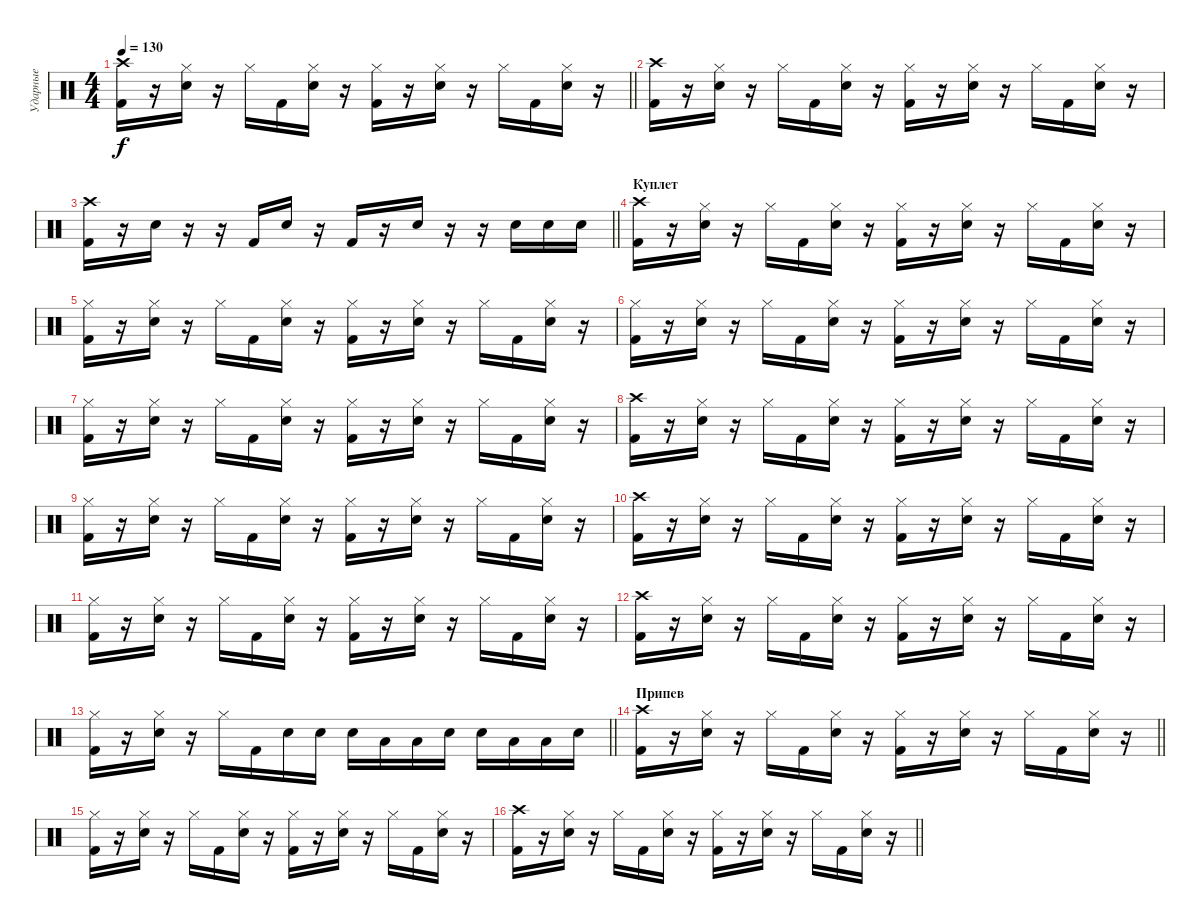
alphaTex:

\track ("Ударные" "Ударные") {instrument percussion}
\staff {score}
\articulation defaults
\ts (4 4)
\tempo 130
\clef neutral
\barLineRight lightlight
\ks c
("Kick (hit) 2" "Crash high (hit)").16{dy f} r.16 ("Electric Snare (hit)" "Hi-Hat (closed)").16 r.16 "Hi-Hat (closed)".16 "Kick (hit) 2".16 ("Electric Snare (hit)" "Hi-Hat (closed)").16 r.16 ("Kick (hit) 2" "Hi-Hat (closed)").16 r.16 ("Electric Snare (hit)" "Hi-Hat (closed)").16 r.16 "Hi-Hat (closed)".16 "Kick (hit) 2".16 ("Electric Snare (hit)" "Hi-Hat (closed)").16 r.16 |
("Kick (hit) 2" "Crash high (hit)").16 r.16 ("Electric Snare (hit)" "Hi-Hat (closed)").16 r.16 "Hi-Hat (closed)".16 "Kick (hit) 2".16 ("Electric Snare (hit)" "Hi-Hat (closed)").16 r.16 ("Kick (hit) 2" "Hi-Hat (closed)").16 r.16 ("Electric Snare (hit)" "Hi-Hat (closed)").16 r.16 "Hi-Hat (closed)".16 "Kick (hit) 2".16 ("Electric Snare (hit)" "Hi-Hat (closed)").16 r.16 |
\barLineRight lightlight
("Kick (hit) 2" "Crash high (hit)").16 r.16 "Electric Snare (hit)".16 r.16 r.16 "Kick (hit) 2".16 "Electric Snare (hit)".16 r.16 "Kick (hit) 2".16 r.16 "Electric Snare (hit)".16 r.16 r.16 "Electric Snare (hit)".16 "Electric Snare (hit)".16 "Electric Snare (hit)".16 |
\section ("" "Куплет")
("Kick (hit) 2" "Crash high (hit)").16 r.16 ("Electric Snare (hit)" "Hi-Hat (closed)").16 r.16 "Hi-Hat (closed)".16 "Kick (hit) 2".16 ("Electric Snare (hit)" "Hi-Hat (closed)").16 r.16 ("Kick (hit) 2" "Hi-Hat (closed)").16 r.16 ("Electric Snare (hit)" "Hi-Hat (closed)").16 r.16 "Hi-Hat (closed)".16 "Kick (hit) 2".16 ("Electric Snare (hit)" "Hi-Hat (closed)").16 r.16 |
("Kick (hit) 2" "Hi-Hat (closed)").16 r.16 ("Electric Snare (hit)" "Hi-Hat (closed)").16 r.16 "Hi-Hat (closed)".16 "Kick (hit) 2".16 ("Electric Snare (hit)" "Hi-Hat (closed)").16 r.16 ("Kick (hit) 2" "Hi-Hat (closed)").16 r.16 ("Electric Snare (hit)" "Hi-Hat (closed)").16 r.16 "Hi-Hat (closed)".16 "Kick (hit) 2".16 ("Electric Snare (hit)" "Hi-Hat (closed)").16 r.16 |
("Kick (hit) 2" "Hi-Hat (closed)").16 r.16 ("Electric Snare (hit)" "Hi-Hat (closed)").16 r.16 "Hi-Hat (closed)".16 "Kick (hit) 2".16 ("Electric Snare (hit)" "Hi-Hat (closed)").16 r.16 ("Kick (hit) 2" "Hi-Hat (closed)").16 r.16 ("Electric Snare (hit)" "Hi-Hat (closed)").16 r.16 "Hi-Hat (closed)".16 "Kick (hit) 2".16 ("Electric Snare (hit)" "Hi-Hat (closed)").16 r.16 |
("Kick (hit) 2" "Hi-Hat (closed)").16 r.16 ("Electric Snare (hit)" "Hi-Hat (closed)").16 r.16 "Hi-Hat (closed)".16 "Kick (hit) 2".16 ("Electric Snare (hit)" "Hi-Hat (closed)").16 r.16 ("Kick (hit) 2" "Hi-Hat (closed)").16 r.16 ("Electric Snare (hit)" "Hi-Hat (closed)").16 r.16 "Hi-Hat (closed)".16 "Kick (hit) 2".16 ("Electric Snare (hit)" "Hi-Hat (closed)").16 r.16 |
("Kick (hit) 2" "Crash high (hit)").16 r.16 ("Electric Snare (hit)" "Hi-Hat (closed)").16 r.16 "Hi-Hat (closed)".16 "Kick (hit) 2".16 ("Electric Snare (hit)" "Hi-Hat (closed)").16 r.16 ("Kick (hit) 2" "Hi-Hat (closed)").16 r.16 ("Electric Snare (hit)" "Hi-Hat (closed)").16 r.16 "Hi-Hat (closed)".16 "Kick (hit) 2".16 ("Electric Snare (hit)" "Hi-Hat (closed)").16 r.16 |
("Kick (hit) 2" "Hi-Hat (closed)").16 r.16 ("Electric Snare (hit)" "Hi-Hat (closed)").16 r.16 "Hi-Hat (closed)".16 "Kick (hit) 2".16 ("Electric Snare (hit)" "Hi-Hat (closed)").16 r.16 ("Kick (hit) 2" "Hi-Hat (closed)").16 r.16 ("Electric Snare (hit)" "Hi-Hat (closed)").16 r.16 "Hi-Hat (closed)".16 "Kick (hit) 2".16 ("Electric Snare (hit)" "Hi-Hat (closed)").16 r.16 |
("Kick (hit) 2" "Crash high (hit)").16 r.16 ("Electric Snare (hit)" "Hi-Hat (closed)").16 r.16 "Hi-Hat (closed)".16 "Kick (hit) 2".16 ("Electric Snare (hit)" "Hi-Hat (closed)").16 r.16 ("Kick (hit) 2" "Hi-Hat (closed)").16 r.16 ("Electric Snare (hit)" "Hi-Hat (closed)").16 r.16 "Hi-Hat (closed)".16 "Kick (hit) 2".16 ("Electric Snare (hit)" "Hi-Hat (closed)").16 r.16 |
("Kick (hit) 2" "Hi-Hat (closed)").16 r.16 ("Electric Snare (hit)" "Hi-Hat (closed)").16 r.16 "Hi-Hat (closed)".16 "Kick (hit) 2".16 ("Electric Snare (hit)" "Hi-Hat (closed)").16 r.16 ("Kick (hit) 2" "Hi-Hat (closed)").16 r.16 ("Electric Snare (hit)" "Hi-Hat (closed)").16 r.16 "Hi-Hat (closed)".16 "Kick (hit) 2".16 ("Electric Snare (hit)" "Hi-Hat (closed)").16 r.16 |
("Kick (hit) 2" "Crash high (hit)").16 r.16 ("Electric Snare (hit)" "Hi-Hat (closed)").16 r.16 "Hi-Hat (closed)".16 "Kick (hit) 2".16 ("Electric Snare (hit)" "Hi-Hat (closed)").16 r.16 ("Kick (hit) 2" "Hi-Hat (closed)").16 r.16 ("Electric Snare (hit)" "Hi-Hat (closed)").16 r.16 "Hi-Hat (closed)".16 "Kick (hit) 2".16 ("Electric Snare (hit)" "Hi-Hat (closed)").16 r.16 |
\barLineRight lightlight
("Kick (hit) 2" "Hi-Hat (closed)").16 r.16 ("Electric Snare (hit)" "Hi-Hat (closed)").16 r.16 "Hi-Hat (closed)".16 "Kick (hit) 2".16 "Electric Snare (hit)".16 "Electric Snare (hit)".16 "Electric Snare (hit)".16 "Low Tom (hit)".16 "Low Tom (hit)".16 "Electric Snare (hit)".16 "Electric Snare (hit)".16 "Low Tom (hit)".16 "Low Tom (hit)".16 "Electric Snare (hit)".16 |
\section ("" "Припев")
\barLineRight lightlight
("Kick (hit) 2" "Crash high (hit)").16 r.16 ("Electric Snare (hit)" "Hi-Hat (closed)").16 r.16 "Hi-Hat (closed)".16 "Kick (hit) 2".16 ("Electric Snare (hit)" "Hi-Hat (closed)").16 r.16 ("Kick (hit) 2" "Hi-Hat (closed)").16 r.16 ("Electric Snare (hit)" "Hi-Hat (closed)").16 r.16 "Hi-Hat (closed)".16 "Kick (hit) 2".16 ("Electric Snare (hit)" "Hi-Hat (closed)").16 r.16 |
("Kick (hit) 2" "Hi-Hat (closed)").16 r.16 ("Electric Snare (hit)" "Hi-Hat (closed)").16 r.16 "Hi-Hat (closed)".16 "Kick (hit) 2".16 ("Electric Snare (hit)" "Hi-Hat (closed)").16 r.16 ("Kick (hit) 2" "Hi-Hat (closed)").16 r.16 ("Electric Snare (hit)" "Hi-Hat (closed)").16 r.16 "Hi-Hat (closed)".16 "Kick (hit) 2".16 ("Electric Snare (hit)" "Hi-Hat (closed)").16 r.16 |
\barLineRight lightlight
("Kick (hit) 2" "Crash high (hit)").16 r.16 ("Electric Snare (hit)" "Hi-Hat (closed)").16 r.16 "Hi-Hat (closed)".16 "Kick (hit) 2".16 ("Electric Snare (hit)" "Hi-Hat (closed)").16 r.16 ("Kick (hit) 2" "Hi-Hat (closed)").16 r.16 ("Electric Snare (hit)" "Hi-Hat (closed)").16 r.16 "Hi-Hat (closed)".16 "Kick (hit) 2".16 ("Electric Snare (hit)" "Hi-Hat (closed)").16 r.16
